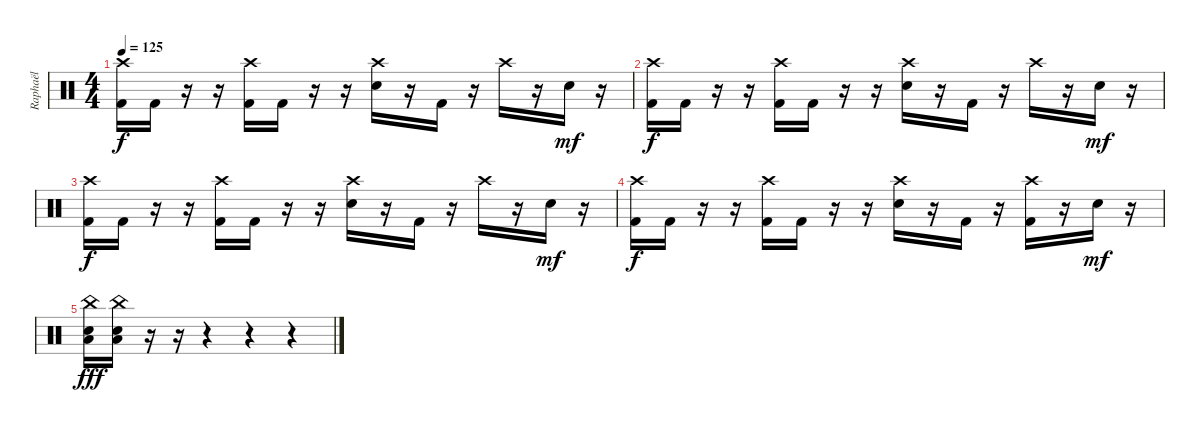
\track ("Raphaël" "Raphaël") {instrument percussion}
\staff {score}
\articulation defaults
\ts (4 4)
\tempo 125
\clef neutral
\ks c
("Kick (hit) 2" "Crash high (hit)").16{dy f} "Kick (hit) 2".16 r.16 r.16 ("Kick (hit) 2" "Crash high (hit)").16 "Kick (hit) 2".16 r.16 r.16 ("Electric Snare (hit)" "Crash high (hit)").16 r.16 "Kick (hit) 2".16 r.16 "Crash high (hit)".16 r.16 "Electric Snare (hit)".16{dy mf} r.16 |
("Kick (hit) 2" "Crash high (hit)").16{dy f} "Kick (hit) 2".16 r.16 r.16 ("Kick (hit) 2" "Crash high (hit)").16 "Kick (hit) 2".16 r.16 r.16 ("Electric Snare (hit)" "Crash high (hit)").16 r.16 "Kick (hit) 2".16 r.16 "Crash high (hit)".16 r.16 "Electric Snare (hit)".16{dy mf} r.16 |
("Kick (hit) 2" "Crash high (hit)").16{dy f} "Kick (hit) 2".16 r.16 r.16 ("Kick (hit) 2" "Crash high (hit)").16 "Kick (hit) 2".16 r.16 r.16 ("Electric Snare (hit)" "Crash high (hit)").16 r.16 "Kick (hit) 2".16 r.16 "Crash high (hit)".16 r.16 "Electric Snare (hit)".16{dy mf} r.16 |
("Kick (hit) 2" "Crash high (hit)").16{dy f} "Kick (hit) 2".16 r.16 r.16 ("Kick (hit) 2" "Crash high (hit)").16 "Kick (hit) 2".16 r.16 r.16 ("Electric Snare (hit)" "Crash high (hit)").16 r.16 "Kick (hit) 2".16 r.16 ("Kick (hit) 2" "Crash high (hit)").16 r.16 "Electric Snare (hit)".16{dy mf} r.16 |
("Electric Snare (hit)" "Low Floor Tom (hit)" "China (hit)").16{dy fff} ("Electric Snare (hit)" "Low Floor Tom (hit)" "China (hit)").16 r.16 r.16 r.4 r.4 r.4
